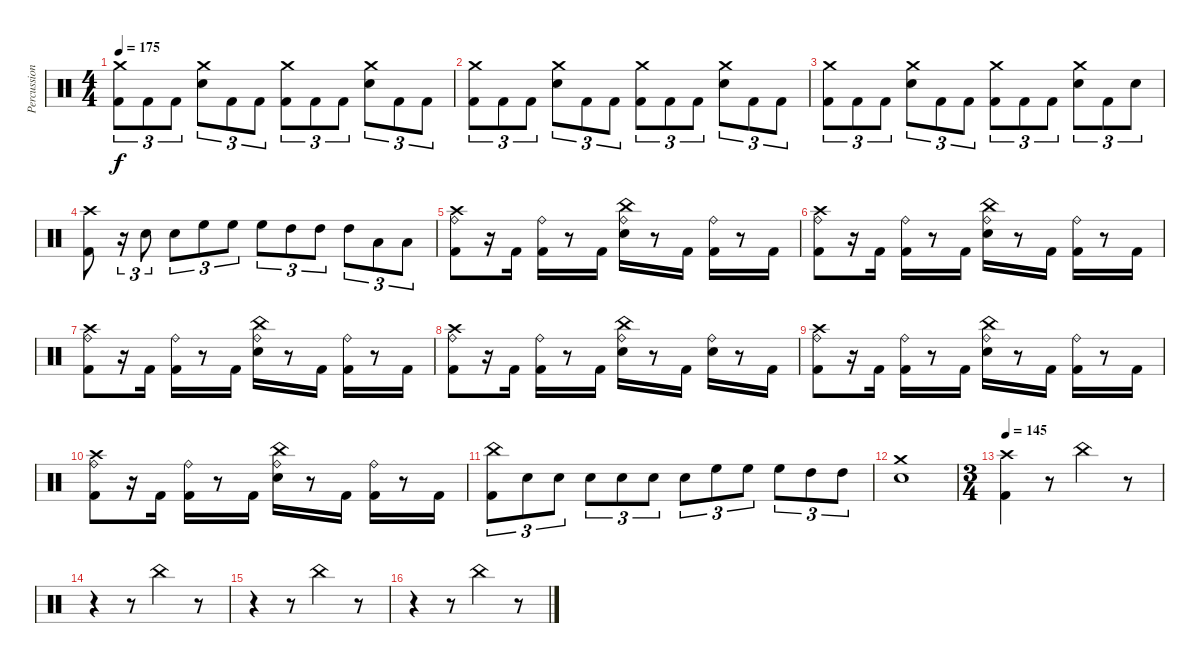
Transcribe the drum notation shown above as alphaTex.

\track ("Percussion" "Percussion") {instrument percussion}
\staff {score}
\articulation defaults
\ts (4 4)
\tempo 175
\clef neutral
\ks c
("Crash medium (hit)" "Kick (hit) 2").8{tu (3 2) dy f} "Kick (hit) 2".8{tu (3 2)} "Kick (hit) 2".8{tu (3 2)} ("Crash medium (hit)" "Electric Snare (hit)").8{tu (3 2)} "Kick (hit) 2".8{tu (3 2)} "Kick (hit) 2".8{tu (3 2)} ("Crash medium (hit)" "Kick (hit) 2").8{tu (3 2)} "Kick (hit) 2".8{tu (3 2)} "Kick (hit) 2".8{tu (3 2)} ("Crash medium (hit)" "Electric Snare (hit)").8{tu (3 2)} "Kick (hit) 2".8{tu (3 2)} "Kick (hit) 2".8{tu (3 2)} |
("Crash medium (hit)" "Kick (hit) 2").8{tu (3 2)} "Kick (hit) 2".8{tu (3 2)} "Kick (hit) 2".8{tu (3 2)} ("Crash medium (hit)" "Electric Snare (hit)").8{tu (3 2)} "Kick (hit) 2".8{tu (3 2)} "Kick (hit) 2".8{tu (3 2)} ("Crash medium (hit)" "Kick (hit) 2").8{tu (3 2)} "Kick (hit) 2".8{tu (3 2)} "Kick (hit) 2".8{tu (3 2)} ("Crash medium (hit)" "Electric Snare (hit)").8{tu (3 2)} "Kick (hit) 2".8{tu (3 2)} "Kick (hit) 2".8{tu (3 2)} |
("Crash medium (hit)" "Kick (hit) 2").8{tu (3 2)} "Kick (hit) 2".8{tu (3 2)} "Kick (hit) 2".8{tu (3 2)} ("Crash medium (hit)" "Electric Snare (hit)").8{tu (3 2)} "Kick (hit) 2".8{tu (3 2)} "Kick (hit) 2".8{tu (3 2)} ("Crash medium (hit)" "Kick (hit) 2").8{tu (3 2)} "Kick (hit) 2".8{tu (3 2)} "Kick (hit) 2".8{tu (3 2)} ("Crash medium (hit)" "Electric Snare (hit)").8{tu (3 2)} "Kick (hit) 2".8{tu (3 2)} "Electric Snare (hit)".8{tu (3 2)} |
("Crash high (hit)" "Kick (hit) 2").8 r.16{tu (3 2)} "Electric Snare (hit)".8{tu (3 2)} "Electric Snare (hit)".8{tu (3 2)} "High Floor Tom (hit)".8{tu (3 2)} "High Floor Tom (hit)".8{tu (3 2)} "High Floor Tom (hit)".8{tu (3 2)} "High Tom (hit)".8{tu (3 2)} "High Tom (hit)".8{tu (3 2)} "High Tom (hit)".8{tu (3 2)} "Low Floor Tom (hit)".8{tu (3 2)} "Low Floor Tom (hit)".8{tu (3 2)} |
("Crash high (hit)" "Ride (bell)" "Kick (hit) 2").8 r.16 "Kick (hit) 2".16 ("Ride (bell)" "Kick (hit) 2").16 r.8 "Kick (hit) 2".16 ("China (hit)" "Ride (bell)" "Electric Snare (hit)").16 r.8 "Kick (hit) 2".16 ("Ride (bell)" "Kick (hit) 2").16 r.8 "Kick (hit) 2".16 |
("Crash high (hit)" "Ride (bell)" "Kick (hit) 2").8 r.16 "Kick (hit) 2".16 ("Ride (bell)" "Kick (hit) 2").16 r.8 "Kick (hit) 2".16 ("China (hit)" "Ride (bell)" "Electric Snare (hit)").16 r.8 "Kick (hit) 2".16 ("Ride (bell)" "Kick (hit) 2").16 r.8 "Kick (hit) 2".16 |
("Crash high (hit)" "Ride (bell)" "Kick (hit) 2").8 r.16 "Kick (hit) 2".16 ("Ride (bell)" "Kick (hit) 2").16 r.8 "Kick (hit) 2".16 ("China (hit)" "Ride (bell)" "Electric Snare (hit)").16 r.8 "Kick (hit) 2".16 ("Ride (bell)" "Kick (hit) 2").16 r.8 "Kick (hit) 2".16 |
("Crash high (hit)" "Ride (bell)" "Kick (hit) 2").8 r.16 "Kick (hit) 2".16 ("Ride (bell)" "Kick (hit) 2").16 r.8 "Kick (hit) 2".16 ("China (hit)" "Ride (bell)" "Electric Snare (hit)").16 r.8 "Kick (hit) 2".16 ("Ride (bell)" "Electric Snare (hit)").16 r.8 "Kick (hit) 2".16 |
("Crash high (hit)" "Ride (bell)" "Kick (hit) 2").8 r.16 "Kick (hit) 2".16 ("Ride (bell)" "Kick (hit) 2").16 r.8 "Kick (hit) 2".16 ("China (hit)" "Ride (bell)" "Electric Snare (hit)").16 r.8 "Kick (hit) 2".16 ("Ride (bell)" "Kick (hit) 2").16 r.8 "Kick (hit) 2".16 |
("Crash high (hit)" "Ride (bell)" "Kick (hit) 2").8 r.16 "Kick (hit) 2".16 ("Ride (bell)" "Kick (hit) 2").16 r.8 "Kick (hit) 2".16 ("China (hit)" "Ride (bell)" "Electric Snare (hit)").16 r.8 "Kick (hit) 2".16 ("Ride (bell)" "Kick (hit) 2").16 r.8 "Kick (hit) 2".16 |
("China (hit)" "Kick (hit) 2").8{tu (3 2)} "Electric Snare (hit)".8{tu (3 2)} "Electric Snare (hit)".8{tu (3 2)} "Electric Snare (hit)".8{tu (3 2)} "Electric Snare (hit)".8{tu (3 2)} "Electric Snare (hit)".8{tu (3 2)} "Electric Snare (hit)".8{tu (3 2)} "High Floor Tom (hit)".8{tu (3 2)} "High Floor Tom (hit)".8{tu (3 2)} "High Floor Tom (hit)".8{tu (3 2)} "High Tom (hit)".8{tu (3 2)} "High Tom (hit)".8{tu (3 2)} |
("Crash medium (hit)" "Electric Snare (hit)").1 |
\ts (3 4)
\tempo 145
("Crash high (hit)" "Kick (hit) 2").4 r.8 "China (hit)".4 r.8 |
r.4 r.8 "China (hit)".4 r.8 |
r.4 r.8 "China (hit)".4 r.8 |
r.4 r.8 "China (hit)".4 r.8
